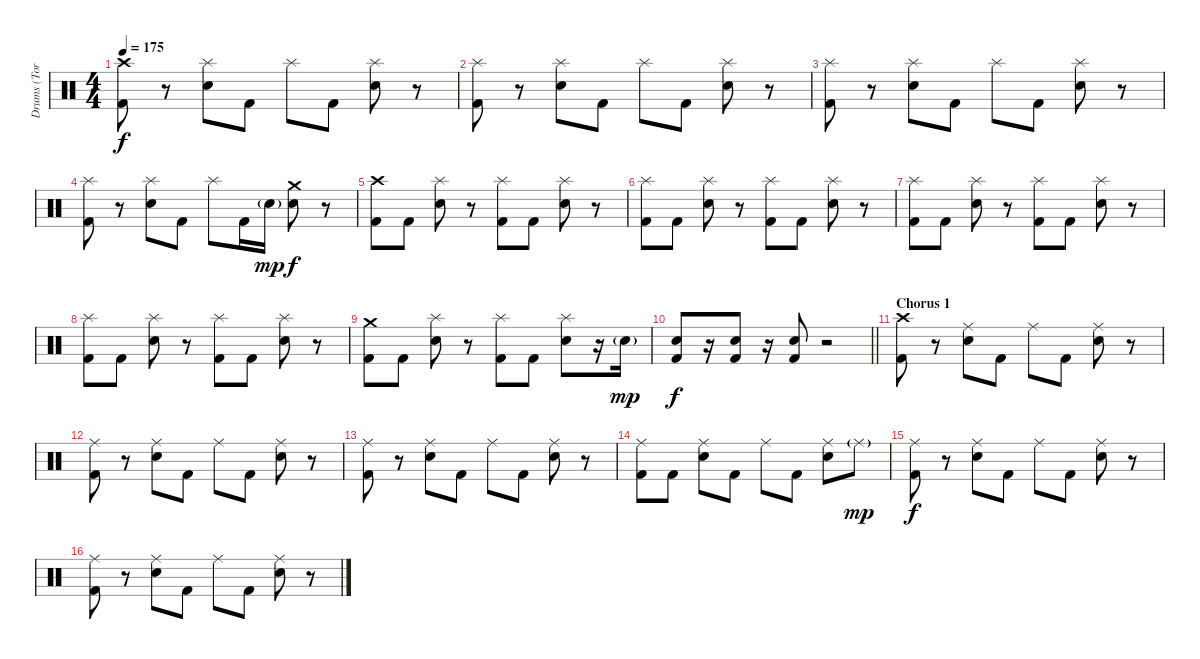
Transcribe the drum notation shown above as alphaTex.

\track ("Drums (Tora)" "Drums (Tor") {instrument percussion}
\staff {score}
\articulation defaults
\ts (4 4)
\tempo 175
\clef neutral
\ks c
("Crash high (hit)" "Kick (hit) 2").8{dy f} r.8 ("Splash (hit)" "Electric Snare (hit)").8 "Kick (hit) 2".8 "Splash (hit)".8 "Kick (hit) 2".8 ("Splash (hit)" "Electric Snare (hit)").8 r.8 |
("Splash (hit)" "Kick (hit) 2").8 r.8 ("Splash (hit)" "Electric Snare (hit)").8 "Kick (hit) 2".8 "Splash (hit)".8 "Kick (hit) 2".8 ("Splash (hit)" "Electric Snare (hit)").8 r.8 |
("Splash (hit)" "Kick (hit) 2").8 r.8 ("Splash (hit)" "Electric Snare (hit)").8 "Kick (hit) 2".8 "Splash (hit)".8 "Kick (hit) 2".8 ("Splash (hit)" "Electric Snare (hit)").8 r.8 |
("Splash (hit)" "Kick (hit) 2").8 r.8 ("Splash (hit)" "Electric Snare (hit)").8 "Kick (hit) 2".8 "Splash (hit)".8 "Kick (hit) 2".16 "Electric Snare (hit)"{g}.16{dy mp} ("Crash medium (hit)" "Electric Snare (hit)").8{dy f} r.8 |
("Crash high (hit)" "Kick (hit) 2").8 "Kick (hit) 2".8 ("Splash (hit)" "Electric Snare (hit)").8 r.8 ("Splash (hit)" "Kick (hit) 2").8 "Kick (hit) 2".8 ("Splash (hit)" "Electric Snare (hit)").8 r.8 |
("Splash (hit)" "Kick (hit) 2").8 "Kick (hit) 2".8 ("Splash (hit)" "Electric Snare (hit)").8 r.8 ("Splash (hit)" "Kick (hit) 2").8 "Kick (hit) 2".8 ("Splash (hit)" "Electric Snare (hit)").8 r.8 |
("Splash (hit)" "Kick (hit) 2").8 "Kick (hit) 2".8 ("Splash (hit)" "Electric Snare (hit)").8 r.8 ("Splash (hit)" "Kick (hit) 2").8 "Kick (hit) 2".8 ("Splash (hit)" "Electric Snare (hit)").8 r.8 |
("Splash (hit)" "Kick (hit) 2").8 "Kick (hit) 2".8 ("Splash (hit)" "Electric Snare (hit)").8 r.8 ("Splash (hit)" "Kick (hit) 2").8 "Kick (hit) 2".8 ("Splash (hit)" "Electric Snare (hit)").8 r.8 |
("Crash medium (hit)" "Kick (hit) 2").8 "Kick (hit) 2".8 ("Splash (hit)" "Electric Snare (hit)").8 r.8 ("Splash (hit)" "Kick (hit) 2").8 "Kick (hit) 2".8 ("Splash (hit)" "Electric Snare (hit)").8 r.16 "Electric Snare (hit)"{g}.16{dy mp} |
\barLineRight lightlight
("Electric Snare (hit)" "Kick (hit) 2").8{dy f} r.16 ("Electric Snare (hit)" "Kick (hit) 2").8 r.16 ("Electric Snare (hit)" "Kick (hit) 2").8 r.2 |
\section ("" "Chorus 1")
("Crash high (hit)" "Kick (hit) 2").8 r.8 ("Ride (middle)" "Electric Snare (hit)").8 "Kick (hit) 2".8 "Ride (middle)".8 "Kick (hit) 2".8 ("Ride (middle)" "Electric Snare (hit)").8 r.8 |
("Ride (middle)" "Kick (hit) 2").8 r.8 ("Ride (middle)" "Electric Snare (hit)").8 "Kick (hit) 2".8 "Ride (middle)".8 "Kick (hit) 2".8 ("Ride (middle)" "Electric Snare (hit)").8 r.8 |
("Ride (middle)" "Kick (hit) 2").8 r.8 ("Ride (middle)" "Electric Snare (hit)").8 "Kick (hit) 2".8 "Ride (middle)".8 "Kick (hit) 2".8 ("Ride (middle)" "Electric Snare (hit)").8 r.8 |
("Ride (middle)" "Kick (hit) 2").8 "Kick (hit) 2".8 ("Ride (middle)" "Electric Snare (hit)").8 "Kick (hit) 2".8 "Ride (middle)".8 "Kick (hit) 2".8 ("Ride (middle)" "Electric Snare (hit)").8 "Ride (middle)"{g}.8{dy mp} |
("Ride (middle)" "Kick (hit) 2").8{dy f} r.8 ("Ride (middle)" "Electric Snare (hit)").8 "Kick (hit) 2".8 "Ride (middle)".8 "Kick (hit) 2".8 ("Ride (middle)" "Electric Snare (hit)").8 r.8 |
("Ride (middle)" "Kick (hit) 2").8 r.8 ("Ride (middle)" "Electric Snare (hit)").8 "Kick (hit) 2".8 "Ride (middle)".8 "Kick (hit) 2".8 ("Ride (middle)" "Electric Snare (hit)").8 r.8
